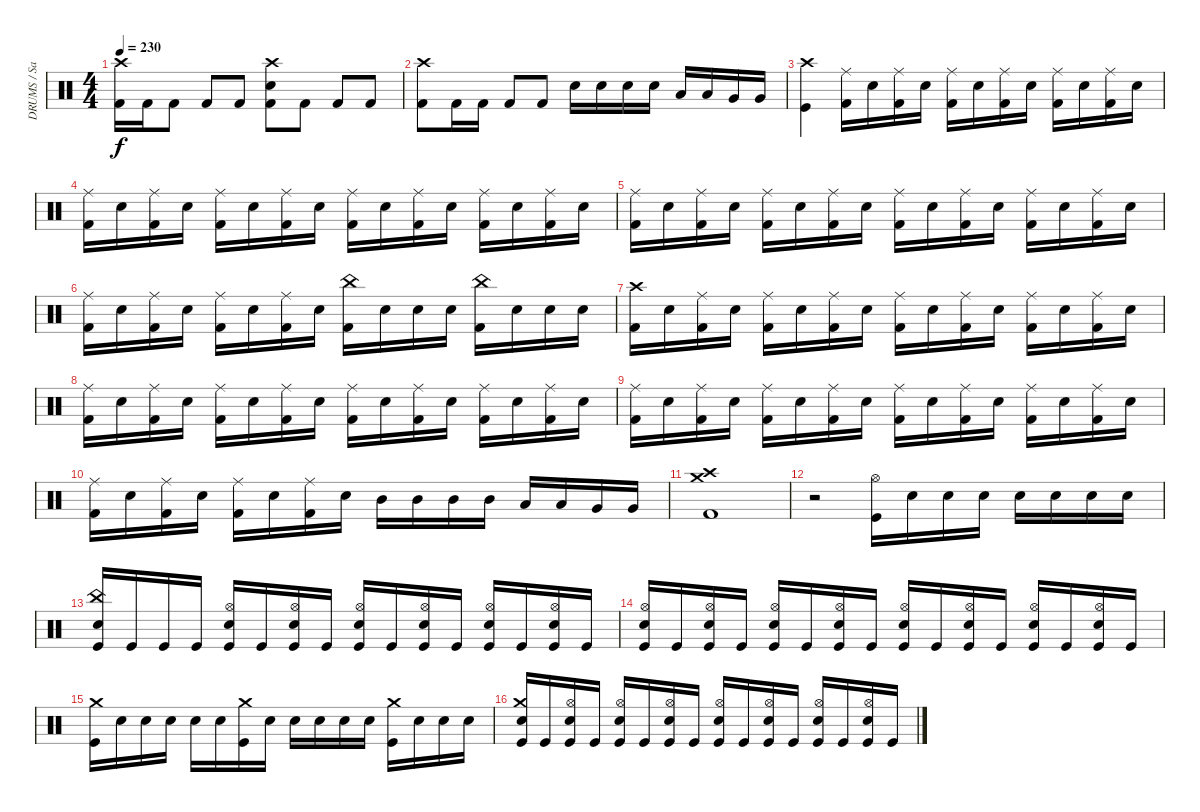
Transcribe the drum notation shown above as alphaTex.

\track ("DRUMS / Sasha" "DRUMS / Sa") {instrument percussion}
\staff {score}
\articulation defaults
\ts (4 4)
\tempo 230
\clef neutral
\ks c
("Crash high (hit)" "Kick (hit) 2").16{dy f} "Kick (hit) 2".16 "Kick (hit) 2".8 "Kick (hit) 2".8 "Kick (hit) 2".8 ("Crash high (hit)" "Electric Snare (hit)" "Kick (hit) 2").8 "Kick (hit) 2".8 "Kick (hit) 2".8 "Kick (hit) 2".8 |
("Crash high (hit)" "Kick (hit) 2").8 "Kick (hit) 2".16 "Kick (hit) 2".16 "Kick (hit) 2".8 "Kick (hit) 2".8 "Electric Snare (hit)".16 "Electric Snare (hit)".16 "Electric Snare (hit)".16 "Electric Snare (hit)".16 "Low Tom (hit)".16 "Low Tom (hit)".16 "Very Low Tom (hit)".16 "Very Low Tom (hit)".16 |
("Kick (hit)" "Crash high (hit)").4 ("Ride (middle)" "Kick (hit) 2").16 "Electric Snare (hit)".16 ("Ride (middle)" "Kick (hit) 2").16 "Electric Snare (hit)".16 ("Ride (middle)" "Kick (hit) 2").16 "Electric Snare (hit)".16 ("Ride (middle)" "Kick (hit) 2").16 "Electric Snare (hit)".16 ("Ride (middle)" "Kick (hit) 2").16 "Electric Snare (hit)".16 ("Ride (middle)" "Kick (hit) 2").16 "Electric Snare (hit)".16 |
("Ride (middle)" "Kick (hit) 2").16 "Electric Snare (hit)".16 ("Ride (middle)" "Kick (hit) 2").16 "Electric Snare (hit)".16 ("Ride (middle)" "Kick (hit) 2").16 "Electric Snare (hit)".16 ("Ride (middle)" "Kick (hit) 2").16 "Electric Snare (hit)".16 ("Ride (middle)" "Kick (hit) 2").16 "Electric Snare (hit)".16 ("Ride (middle)" "Kick (hit) 2").16 "Electric Snare (hit)".16 ("Ride (middle)" "Kick (hit) 2").16 "Electric Snare (hit)".16 ("Ride (middle)" "Kick (hit) 2").16 "Electric Snare (hit)".16 |
("Ride (middle)" "Kick (hit) 2").16 "Electric Snare (hit)".16 ("Ride (middle)" "Kick (hit) 2").16 "Electric Snare (hit)".16 ("Ride (middle)" "Kick (hit) 2").16 "Electric Snare (hit)".16 ("Ride (middle)" "Kick (hit) 2").16 "Electric Snare (hit)".16 ("Ride (middle)" "Kick (hit) 2").16 "Electric Snare (hit)".16 ("Ride (middle)" "Kick (hit) 2").16 "Electric Snare (hit)".16 ("Ride (middle)" "Kick (hit) 2").16 "Electric Snare (hit)".16 ("Ride (middle)" "Kick (hit) 2").16 "Electric Snare (hit)".16 |
("Ride (middle)" "Kick (hit) 2").16 "Electric Snare (hit)".16 ("Ride (middle)" "Kick (hit) 2").16 "Electric Snare (hit)".16 ("Ride (middle)" "Kick (hit) 2").16 "Electric Snare (hit)".16 ("Ride (middle)" "Kick (hit) 2").16 "Electric Snare (hit)".16 ("China (hit)" "Kick (hit) 2").16 "Electric Snare (hit)".16 "Electric Snare (hit)".16 "Electric Snare (hit)".16 ("China (hit)" "Kick (hit) 2").16 "Electric Snare (hit)".16 "Electric Snare (hit)".16 "Electric Snare (hit)".16 |
("Crash high (hit)" "Kick (hit) 2").16 "Electric Snare (hit)".16 ("Ride (middle)" "Kick (hit) 2").16 "Electric Snare (hit)".16 ("Ride (middle)" "Kick (hit) 2").16 "Electric Snare (hit)".16 ("Ride (middle)" "Kick (hit) 2").16 "Electric Snare (hit)".16 ("Ride (middle)" "Kick (hit) 2").16 "Electric Snare (hit)".16 ("Ride (middle)" "Kick (hit) 2").16 "Electric Snare (hit)".16 ("Ride (middle)" "Kick (hit) 2").16 "Electric Snare (hit)".16 ("Ride (middle)" "Kick (hit) 2").16 "Electric Snare (hit)".16 |
("Ride (middle)" "Kick (hit) 2").16 "Electric Snare (hit)".16 ("Ride (middle)" "Kick (hit) 2").16 "Electric Snare (hit)".16 ("Ride (middle)" "Kick (hit) 2").16 "Electric Snare (hit)".16 ("Ride (middle)" "Kick (hit) 2").16 "Electric Snare (hit)".16 ("Ride (middle)" "Kick (hit) 2").16 "Electric Snare (hit)".16 ("Ride (middle)" "Kick (hit) 2").16 "Electric Snare (hit)".16 ("Ride (middle)" "Kick (hit) 2").16 "Electric Snare (hit)".16 ("Ride (middle)" "Kick (hit) 2").16 "Electric Snare (hit)".16 |
("Ride (middle)" "Kick (hit) 2").16 "Electric Snare (hit)".16 ("Ride (middle)" "Kick (hit) 2").16 "Electric Snare (hit)".16 ("Ride (middle)" "Kick (hit) 2").16 "Electric Snare (hit)".16 ("Ride (middle)" "Kick (hit) 2").16 "Electric Snare (hit)".16 ("Ride (middle)" "Kick (hit) 2").16 "Electric Snare (hit)".16 ("Ride (middle)" "Kick (hit) 2").16 "Electric Snare (hit)".16 ("Ride (middle)" "Kick (hit) 2").16 "Electric Snare (hit)".16 ("Ride (middle)" "Kick (hit) 2").16 "Electric Snare (hit)".16 |
("Ride (middle)" "Kick (hit) 2").16 "Electric Snare (hit)".16 ("Ride (middle)" "Kick (hit) 2").16 "Electric Snare (hit)".16 ("Ride (middle)" "Kick (hit) 2").16 "Electric Snare (hit)".16 ("Ride (middle)" "Kick (hit) 2").16 "Electric Snare (hit)".16 "Mid Tom (hit)".16 "Mid Tom (hit)".16 "Mid Tom (hit)".16 "Mid Tom (hit)".16 "Low Tom (hit)".16 "Low Tom (hit)".16 "Very Low Tom (hit)".16 "Very Low Tom (hit)".16 |
("Crash high (hit)" "Crash medium (hit)" "Kick (hit) 2").1 |
r.2 ("Kick (hit)" "Hi-Hat (open)").16 "Snare (hit) 2".16 "Snare (hit) 2".16 "Snare (hit) 2".16 "Snare (hit) 2".16 "Snare (hit) 2".16 "Snare (hit) 2".16 "Snare (hit) 2".16 |
("Kick (hit)" "Snare (hit) 2" "China (hit)").16 "Kick (hit)".16 "Kick (hit)".16 "Kick (hit)".16 ("Kick (hit)" "Snare (hit) 2" "Hi-Hat (open)").16 "Kick (hit)".16 ("Kick (hit)" "Snare (hit) 2" "Hi-Hat (open)").16 "Kick (hit)".16 ("Kick (hit)" "Snare (hit) 2" "Hi-Hat (open)").16 "Kick (hit)".16 ("Kick (hit)" "Snare (hit) 2" "Hi-Hat (open)").16 "Kick (hit)".16 ("Kick (hit)" "Snare (hit) 2" "Hi-Hat (open)").16 "Kick (hit)".16 ("Kick (hit)" "Snare (hit) 2" "Hi-Hat (open)").16 "Kick (hit)".16 |
("Kick (hit)" "Snare (hit) 2" "Hi-Hat (open)").16 "Kick (hit)".16 ("Kick (hit)" "Snare (hit) 2" "Hi-Hat (open)").16 "Kick (hit)".16 ("Kick (hit)" "Snare (hit) 2" "Hi-Hat (open)").16 "Kick (hit)".16 ("Kick (hit)" "Snare (hit) 2" "Hi-Hat (open)").16 "Kick (hit)".16 ("Kick (hit)" "Snare (hit) 2" "Hi-Hat (open)").16 "Kick (hit)".16 ("Kick (hit)" "Snare (hit) 2" "Hi-Hat (open)").16 "Kick (hit)".16 ("Kick (hit)" "Snare (hit) 2" "Hi-Hat (open)").16 "Kick (hit)".16 ("Kick (hit)" "Snare (hit) 2" "Hi-Hat (open)").16 "Kick (hit)".16 |
("Kick (hit)" "Crash medium (hit)").16 "Snare (hit) 2".16 "Snare (hit) 2".16 "Snare (hit) 2".16 "Snare (hit) 2".16 "Snare (hit) 2".16 ("Kick (hit)" "Crash medium (hit)").16 "Snare (hit) 2".16 "Snare (hit) 2".16 "Snare (hit) 2".16 "Snare (hit) 2".16 "Snare (hit) 2".16 ("Kick (hit)" "Crash medium (hit)").16 "Snare (hit) 2".16 "Snare (hit) 2".16 "Snare (hit) 2".16 |
("Kick (hit)" "Snare (hit) 2" "Crash medium (hit)").16 "Kick (hit)".16 ("Kick (hit)" "Snare (hit) 2" "Hi-Hat (open)").16 "Kick (hit)".16 ("Kick (hit)" "Snare (hit) 2" "Hi-Hat (open)").16 "Kick (hit)".16 ("Kick (hit)" "Snare (hit) 2" "Hi-Hat (open)").16 "Kick (hit)".16 ("Kick (hit)" "Snare (hit) 2" "Hi-Hat (open)").16 "Kick (hit)".16 ("Kick (hit)" "Snare (hit) 2" "Hi-Hat (open)").16 "Kick (hit)".16 ("Kick (hit)" "Snare (hit) 2" "Hi-Hat (open)").16 "Kick (hit)".16 ("Kick (hit)" "Snare (hit) 2" "Hi-Hat (open)").16 "Kick (hit)".16
